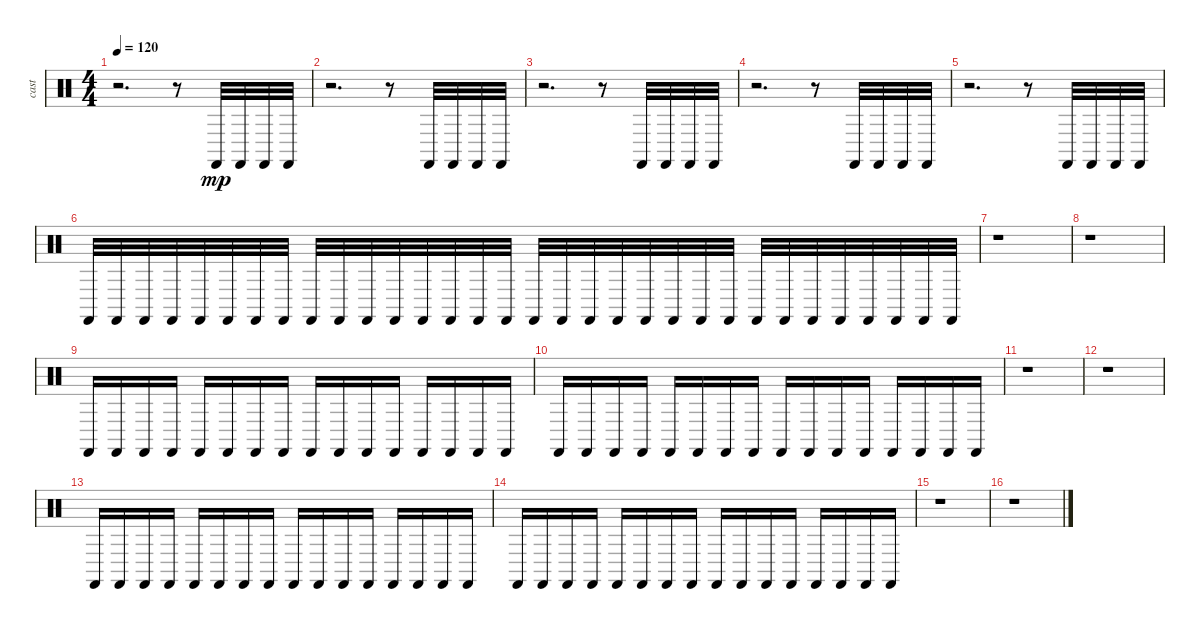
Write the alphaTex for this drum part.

\track ("cast" "cast") {instrument percussion}
\staff {score}
\articulation defaults
\ts (4 4)
\tempo 120
\clef neutral
\ks c
r.2{d dy mp} r.8 "Castanets (hit)".32 "Castanets (hit)".32 "Castanets (hit)".32 "Castanets (hit)".32 |
r.2{d} r.8 "Castanets (hit)".32 "Castanets (hit)".32 "Castanets (hit)".32 "Castanets (hit)".32 |
r.2{d} r.8 "Castanets (hit)".32 "Castanets (hit)".32 "Castanets (hit)".32 "Castanets (hit)".32 |
r.2{d} r.8 "Castanets (hit)".32 "Castanets (hit)".32 "Castanets (hit)".32 "Castanets (hit)".32 |
r.2{d} r.8 "Castanets (hit)".32 "Castanets (hit)".32 "Castanets (hit)".32 "Castanets (hit)".32 |
"Castanets (hit)".32 "Castanets (hit)".32 "Castanets (hit)".32 "Castanets (hit)".32 "Castanets (hit)".32 "Castanets (hit)".32 "Castanets (hit)".32 "Castanets (hit)".32 "Castanets (hit)".32 "Castanets (hit)".32 "Castanets (hit)".32 "Castanets (hit)".32 "Castanets (hit)".32 "Castanets (hit)".32 "Castanets (hit)".32 "Castanets (hit)".32 "Castanets (hit)".32 "Castanets (hit)".32 "Castanets (hit)".32 "Castanets (hit)".32 "Castanets (hit)".32 "Castanets (hit)".32 "Castanets (hit)".32 "Castanets (hit)".32 "Castanets (hit)".32 "Castanets (hit)".32 "Castanets (hit)".32 "Castanets (hit)".32 "Castanets (hit)".32 "Castanets (hit)".32 "Castanets (hit)".32 "Castanets (hit)".32 |
r.1 |
r.1 |
"Castanets (hit)".16 "Castanets (hit)".16 "Castanets (hit)".16 "Castanets (hit)".16 "Castanets (hit)".16 "Castanets (hit)".16 "Castanets (hit)".16 "Castanets (hit)".16 "Castanets (hit)".16 "Castanets (hit)".16 "Castanets (hit)".16 "Castanets (hit)".16 "Castanets (hit)".16 "Castanets (hit)".16 "Castanets (hit)".16 "Castanets (hit)".16 |
"Castanets (hit)".16 "Castanets (hit)".16 "Castanets (hit)".16 "Castanets (hit)".16 "Castanets (hit)".16 "Castanets (hit)".16 "Castanets (hit)".16 "Castanets (hit)".16 "Castanets (hit)".16 "Castanets (hit)".16 "Castanets (hit)".16 "Castanets (hit)".16 "Castanets (hit)".16 "Castanets (hit)".16 "Castanets (hit)".16 "Castanets (hit)".16 |
r.1 |
r.1 |
"Castanets (hit)".16 "Castanets (hit)".16 "Castanets (hit)".16 "Castanets (hit)".16 "Castanets (hit)".16 "Castanets (hit)".16 "Castanets (hit)".16 "Castanets (hit)".16 "Castanets (hit)".16 "Castanets (hit)".16 "Castanets (hit)".16 "Castanets (hit)".16 "Castanets (hit)".16 "Castanets (hit)".16 "Castanets (hit)".16 "Castanets (hit)".16 |
"Castanets (hit)".16 "Castanets (hit)".16 "Castanets (hit)".16 "Castanets (hit)".16 "Castanets (hit)".16 "Castanets (hit)".16 "Castanets (hit)".16 "Castanets (hit)".16 "Castanets (hit)".16 "Castanets (hit)".16 "Castanets (hit)".16 "Castanets (hit)".16 "Castanets (hit)".16 "Castanets (hit)".16 "Castanets (hit)".16 "Castanets (hit)".16 |
r.1 |
r.1
